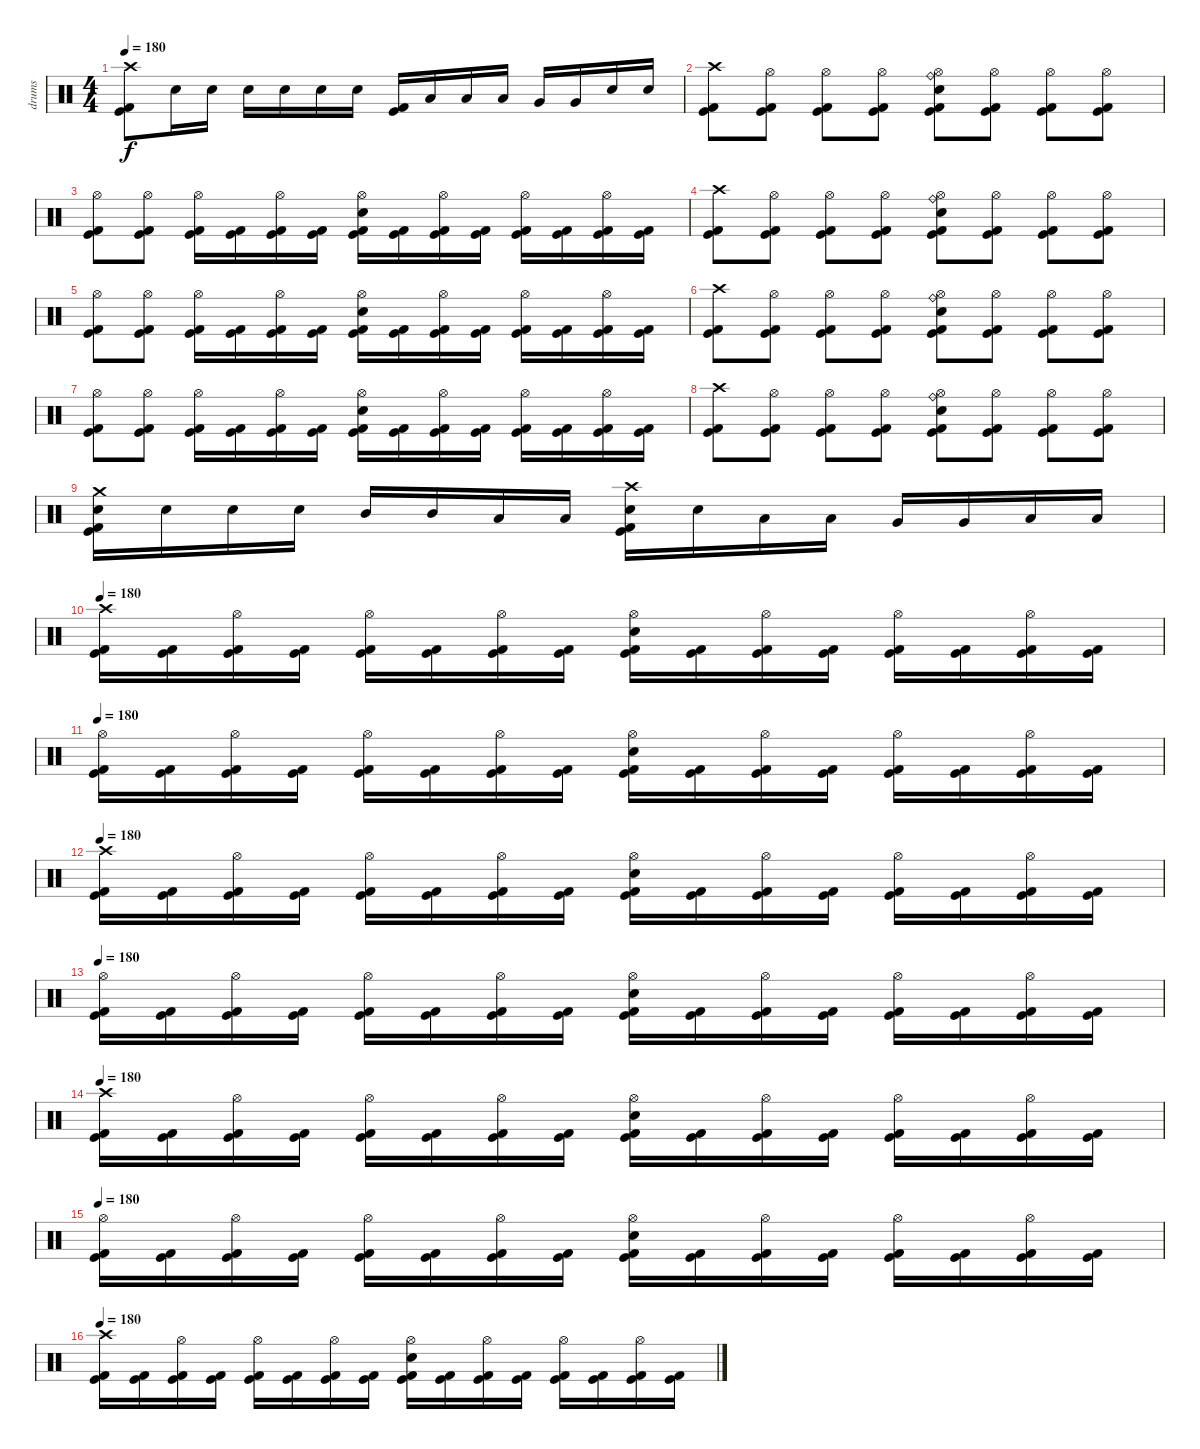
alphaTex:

\track ("drums" "drums") {instrument percussion}
\staff {score}
\articulation defaults
\ts (4 4)
\tempo 180
\clef neutral
\ks c
("Crash high (hit)" "Kick (hit) 2" "Kick (hit)").8{dy f} "Electric Snare (hit)".16 "Electric Snare (hit)".16 "Electric Snare (hit)".16 "Electric Snare (hit)".16 "Electric Snare (hit)".16 "Electric Snare (hit)".16 ("Kick (hit) 2" "Kick (hit)").16 "Low Tom (hit)".16 "Low Tom (hit)".16 "Low Tom (hit)".16 "Very Low Tom (hit)".16 "Very Low Tom (hit)".16 "Electric Snare (hit)".16 "Electric Snare (hit)".16 |
("Crash high (hit)" "Kick (hit) 2" "Kick (hit)").8 ("Hi-Hat (open)" "Kick (hit) 2" "Kick (hit)").8 ("Hi-Hat (open)" "Kick (hit) 2" "Kick (hit)").8 ("Hi-Hat (open)" "Kick (hit) 2" "Kick (hit)").8 ("Ride (bell)" "Electric Snare (hit)" "Hi-Hat (open)" "Kick (hit) 2" "Kick (hit)").8 ("Hi-Hat (open)" "Kick (hit) 2" "Kick (hit)").8 ("Hi-Hat (open)" "Kick (hit) 2" "Kick (hit)").8 ("Hi-Hat (open)" "Kick (hit) 2" "Kick (hit)").8 |
("Hi-Hat (open)" "Kick (hit) 2" "Kick (hit)").8 ("Hi-Hat (open)" "Kick (hit) 2" "Kick (hit)").8 ("Hi-Hat (open)" "Kick (hit) 2" "Kick (hit)").16 ("Kick (hit) 2" "Kick (hit)").16 ("Hi-Hat (open)" "Kick (hit) 2" "Kick (hit)").16 ("Kick (hit) 2" "Kick (hit)").16 ("Electric Snare (hit)" "Hi-Hat (open)" "Kick (hit) 2" "Kick (hit)").16 ("Kick (hit) 2" "Kick (hit)").16 ("Hi-Hat (open)" "Kick (hit) 2" "Kick (hit)").16 ("Kick (hit) 2" "Kick (hit)").16 ("Hi-Hat (open)" "Kick (hit) 2" "Kick (hit)").16 ("Kick (hit) 2" "Kick (hit)").16 ("Hi-Hat (open)" "Kick (hit) 2" "Kick (hit)").16 ("Kick (hit) 2" "Kick (hit)").16 |
("Crash high (hit)" "Kick (hit) 2" "Kick (hit)").8 ("Hi-Hat (open)" "Kick (hit) 2" "Kick (hit)").8 ("Hi-Hat (open)" "Kick (hit) 2" "Kick (hit)").8 ("Hi-Hat (open)" "Kick (hit) 2" "Kick (hit)").8 ("Ride (bell)" "Electric Snare (hit)" "Hi-Hat (open)" "Kick (hit) 2" "Kick (hit)").8 ("Hi-Hat (open)" "Kick (hit) 2" "Kick (hit)").8 ("Hi-Hat (open)" "Kick (hit) 2" "Kick (hit)").8 ("Hi-Hat (open)" "Kick (hit) 2" "Kick (hit)").8 |
("Hi-Hat (open)" "Kick (hit) 2" "Kick (hit)").8 ("Hi-Hat (open)" "Kick (hit) 2" "Kick (hit)").8 ("Hi-Hat (open)" "Kick (hit) 2" "Kick (hit)").16 ("Kick (hit) 2" "Kick (hit)").16 ("Hi-Hat (open)" "Kick (hit) 2" "Kick (hit)").16 ("Kick (hit) 2" "Kick (hit)").16 ("Electric Snare (hit)" "Hi-Hat (open)" "Kick (hit) 2" "Kick (hit)").16 ("Kick (hit) 2" "Kick (hit)").16 ("Hi-Hat (open)" "Kick (hit) 2" "Kick (hit)").16 ("Kick (hit) 2" "Kick (hit)").16 ("Hi-Hat (open)" "Kick (hit) 2" "Kick (hit)").16 ("Kick (hit) 2" "Kick (hit)").16 ("Hi-Hat (open)" "Kick (hit) 2" "Kick (hit)").16 ("Kick (hit) 2" "Kick (hit)").16 |
("Crash high (hit)" "Kick (hit) 2" "Kick (hit)").8 ("Hi-Hat (open)" "Kick (hit) 2" "Kick (hit)").8 ("Hi-Hat (open)" "Kick (hit) 2" "Kick (hit)").8 ("Hi-Hat (open)" "Kick (hit) 2" "Kick (hit)").8 ("Ride (bell)" "Electric Snare (hit)" "Hi-Hat (open)" "Kick (hit) 2" "Kick (hit)").8 ("Hi-Hat (open)" "Kick (hit) 2" "Kick (hit)").8 ("Hi-Hat (open)" "Kick (hit) 2" "Kick (hit)").8 ("Hi-Hat (open)" "Kick (hit) 2" "Kick (hit)").8 |
("Hi-Hat (open)" "Kick (hit) 2" "Kick (hit)").8 ("Hi-Hat (open)" "Kick (hit) 2" "Kick (hit)").8 ("Hi-Hat (open)" "Kick (hit) 2" "Kick (hit)").16 ("Kick (hit) 2" "Kick (hit)").16 ("Hi-Hat (open)" "Kick (hit) 2" "Kick (hit)").16 ("Kick (hit) 2" "Kick (hit)").16 ("Electric Snare (hit)" "Hi-Hat (open)" "Kick (hit) 2" "Kick (hit)").16 ("Kick (hit) 2" "Kick (hit)").16 ("Hi-Hat (open)" "Kick (hit) 2" "Kick (hit)").16 ("Kick (hit) 2" "Kick (hit)").16 ("Hi-Hat (open)" "Kick (hit) 2" "Kick (hit)").16 ("Kick (hit) 2" "Kick (hit)").16 ("Hi-Hat (open)" "Kick (hit) 2" "Kick (hit)").16 ("Kick (hit) 2" "Kick (hit)").16 |
("Crash high (hit)" "Kick (hit) 2" "Kick (hit)").8 ("Hi-Hat (open)" "Kick (hit) 2" "Kick (hit)").8 ("Hi-Hat (open)" "Kick (hit) 2" "Kick (hit)").8 ("Hi-Hat (open)" "Kick (hit) 2" "Kick (hit)").8 ("Ride (bell)" "Electric Snare (hit)" "Hi-Hat (open)" "Kick (hit) 2" "Kick (hit)").8 ("Hi-Hat (open)" "Kick (hit) 2" "Kick (hit)").8 ("Hi-Hat (open)" "Kick (hit) 2" "Kick (hit)").8 ("Hi-Hat (open)" "Kick (hit) 2" "Kick (hit)").8 |
("Crash medium (hit)" "Electric Snare (hit)" "Kick (hit) 2" "Kick (hit)").16 "Electric Snare (hit)".16 "Electric Snare (hit)".16 "Electric Snare (hit)".16 "Mid Tom (hit)".16 "Mid Tom (hit)".16 "Low Tom (hit)".16 "Low Tom (hit)".16 ("Crash high (hit)" "Electric Snare (hit)" "Kick (hit) 2" "Kick (hit)").16 "Electric Snare (hit)".16 "Low Tom (hit)".16 "Low Tom (hit)".16 "Very Low Tom (hit)".16 "Very Low Tom (hit)".16 "Low Floor Tom (hit)".16 "Low Floor Tom (hit)".16 |
\tempo 180
("Crash high (hit)" "Kick (hit) 2" "Kick (hit)").16 ("Kick (hit) 2" "Kick (hit)").16 ("Hi-Hat (open)" "Kick (hit) 2" "Kick (hit)").16 ("Kick (hit) 2" "Kick (hit)").16 ("Hi-Hat (open)" "Kick (hit) 2" "Kick (hit)").16 ("Kick (hit) 2" "Kick (hit)").16 ("Hi-Hat (open)" "Kick (hit) 2" "Kick (hit)").16 ("Kick (hit) 2" "Kick (hit)").16 ("Electric Snare (hit)" "Hi-Hat (open)" "Kick (hit) 2" "Kick (hit)").16 ("Kick (hit) 2" "Kick (hit)").16 ("Hi-Hat (open)" "Kick (hit) 2" "Kick (hit)").16 ("Kick (hit) 2" "Kick (hit)").16 ("Hi-Hat (open)" "Kick (hit) 2" "Kick (hit)").16 ("Kick (hit) 2" "Kick (hit)").16 ("Hi-Hat (open)" "Kick (hit) 2" "Kick (hit)").16 ("Kick (hit) 2" "Kick (hit)").16 |
\tempo 180
("Hi-Hat (open)" "Kick (hit) 2" "Kick (hit)").16 ("Kick (hit) 2" "Kick (hit)").16 ("Hi-Hat (open)" "Kick (hit) 2" "Kick (hit)").16 ("Kick (hit) 2" "Kick (hit)").16 ("Hi-Hat (open)" "Kick (hit) 2" "Kick (hit)").16 ("Kick (hit) 2" "Kick (hit)").16 ("Hi-Hat (open)" "Kick (hit) 2" "Kick (hit)").16 ("Kick (hit) 2" "Kick (hit)").16 ("Electric Snare (hit)" "Hi-Hat (open)" "Kick (hit) 2" "Kick (hit)").16 ("Kick (hit) 2" "Kick (hit)").16 ("Hi-Hat (open)" "Kick (hit) 2" "Kick (hit)").16 ("Kick (hit) 2" "Kick (hit)").16 ("Hi-Hat (open)" "Kick (hit) 2" "Kick (hit)").16 ("Kick (hit) 2" "Kick (hit)").16 ("Hi-Hat (open)" "Kick (hit) 2" "Kick (hit)").16 ("Kick (hit) 2" "Kick (hit)").16 |
\tempo 180
("Crash high (hit)" "Kick (hit) 2" "Kick (hit)").16 ("Kick (hit) 2" "Kick (hit)").16 ("Hi-Hat (open)" "Kick (hit) 2" "Kick (hit)").16 ("Kick (hit) 2" "Kick (hit)").16 ("Hi-Hat (open)" "Kick (hit) 2" "Kick (hit)").16 ("Kick (hit) 2" "Kick (hit)").16 ("Hi-Hat (open)" "Kick (hit) 2" "Kick (hit)").16 ("Kick (hit) 2" "Kick (hit)").16 ("Electric Snare (hit)" "Hi-Hat (open)" "Kick (hit) 2" "Kick (hit)").16 ("Kick (hit) 2" "Kick (hit)").16 ("Hi-Hat (open)" "Kick (hit) 2" "Kick (hit)").16 ("Kick (hit) 2" "Kick (hit)").16 ("Hi-Hat (open)" "Kick (hit) 2" "Kick (hit)").16 ("Kick (hit) 2" "Kick (hit)").16 ("Hi-Hat (open)" "Kick (hit) 2" "Kick (hit)").16 ("Kick (hit) 2" "Kick (hit)").16 |
\tempo 180
("Hi-Hat (open)" "Kick (hit) 2" "Kick (hit)").16 ("Kick (hit) 2" "Kick (hit)").16 ("Hi-Hat (open)" "Kick (hit) 2" "Kick (hit)").16 ("Kick (hit) 2" "Kick (hit)").16 ("Hi-Hat (open)" "Kick (hit) 2" "Kick (hit)").16 ("Kick (hit) 2" "Kick (hit)").16 ("Hi-Hat (open)" "Kick (hit) 2" "Kick (hit)").16 ("Kick (hit) 2" "Kick (hit)").16 ("Electric Snare (hit)" "Hi-Hat (open)" "Kick (hit) 2" "Kick (hit)").16 ("Kick (hit) 2" "Kick (hit)").16 ("Hi-Hat (open)" "Kick (hit) 2" "Kick (hit)").16 ("Kick (hit) 2" "Kick (hit)").16 ("Hi-Hat (open)" "Kick (hit) 2" "Kick (hit)").16 ("Kick (hit) 2" "Kick (hit)").16 ("Hi-Hat (open)" "Kick (hit) 2" "Kick (hit)").16 ("Kick (hit) 2" "Kick (hit)").16 |
\tempo 180
("Crash high (hit)" "Kick (hit) 2" "Kick (hit)").16 ("Kick (hit) 2" "Kick (hit)").16 ("Hi-Hat (open)" "Kick (hit) 2" "Kick (hit)").16 ("Kick (hit) 2" "Kick (hit)").16 ("Hi-Hat (open)" "Kick (hit) 2" "Kick (hit)").16 ("Kick (hit) 2" "Kick (hit)").16 ("Hi-Hat (open)" "Kick (hit) 2" "Kick (hit)").16 ("Kick (hit) 2" "Kick (hit)").16 ("Electric Snare (hit)" "Hi-Hat (open)" "Kick (hit) 2" "Kick (hit)").16 ("Kick (hit) 2" "Kick (hit)").16 ("Hi-Hat (open)" "Kick (hit) 2" "Kick (hit)").16 ("Kick (hit) 2" "Kick (hit)").16 ("Hi-Hat (open)" "Kick (hit) 2" "Kick (hit)").16 ("Kick (hit) 2" "Kick (hit)").16 ("Hi-Hat (open)" "Kick (hit) 2" "Kick (hit)").16 ("Kick (hit) 2" "Kick (hit)").16 |
\tempo 180
("Hi-Hat (open)" "Kick (hit) 2" "Kick (hit)").16 ("Kick (hit) 2" "Kick (hit)").16 ("Hi-Hat (open)" "Kick (hit) 2" "Kick (hit)").16 ("Kick (hit) 2" "Kick (hit)").16 ("Hi-Hat (open)" "Kick (hit) 2" "Kick (hit)").16 ("Kick (hit) 2" "Kick (hit)").16 ("Hi-Hat (open)" "Kick (hit) 2" "Kick (hit)").16 ("Kick (hit) 2" "Kick (hit)").16 ("Electric Snare (hit)" "Hi-Hat (open)" "Kick (hit) 2" "Kick (hit)").16 ("Kick (hit) 2" "Kick (hit)").16 ("Hi-Hat (open)" "Kick (hit) 2" "Kick (hit)").16 ("Kick (hit) 2" "Kick (hit)").16 ("Hi-Hat (open)" "Kick (hit) 2" "Kick (hit)").16 ("Kick (hit) 2" "Kick (hit)").16 ("Hi-Hat (open)" "Kick (hit) 2" "Kick (hit)").16 ("Kick (hit) 2" "Kick (hit)").16 |
\tempo 180
("Crash high (hit)" "Kick (hit) 2" "Kick (hit)").16 ("Kick (hit) 2" "Kick (hit)").16 ("Hi-Hat (open)" "Kick (hit) 2" "Kick (hit)").16 ("Kick (hit) 2" "Kick (hit)").16 ("Hi-Hat (open)" "Kick (hit) 2" "Kick (hit)").16 ("Kick (hit) 2" "Kick (hit)").16 ("Hi-Hat (open)" "Kick (hit) 2" "Kick (hit)").16 ("Kick (hit) 2" "Kick (hit)").16 ("Electric Snare (hit)" "Hi-Hat (open)" "Kick (hit) 2" "Kick (hit)").16 ("Kick (hit) 2" "Kick (hit)").16 ("Hi-Hat (open)" "Kick (hit) 2" "Kick (hit)").16 ("Kick (hit) 2" "Kick (hit)").16 ("Hi-Hat (open)" "Kick (hit) 2" "Kick (hit)").16 ("Kick (hit) 2" "Kick (hit)").16 ("Hi-Hat (open)" "Kick (hit) 2" "Kick (hit)").16 ("Kick (hit) 2" "Kick (hit)").16
